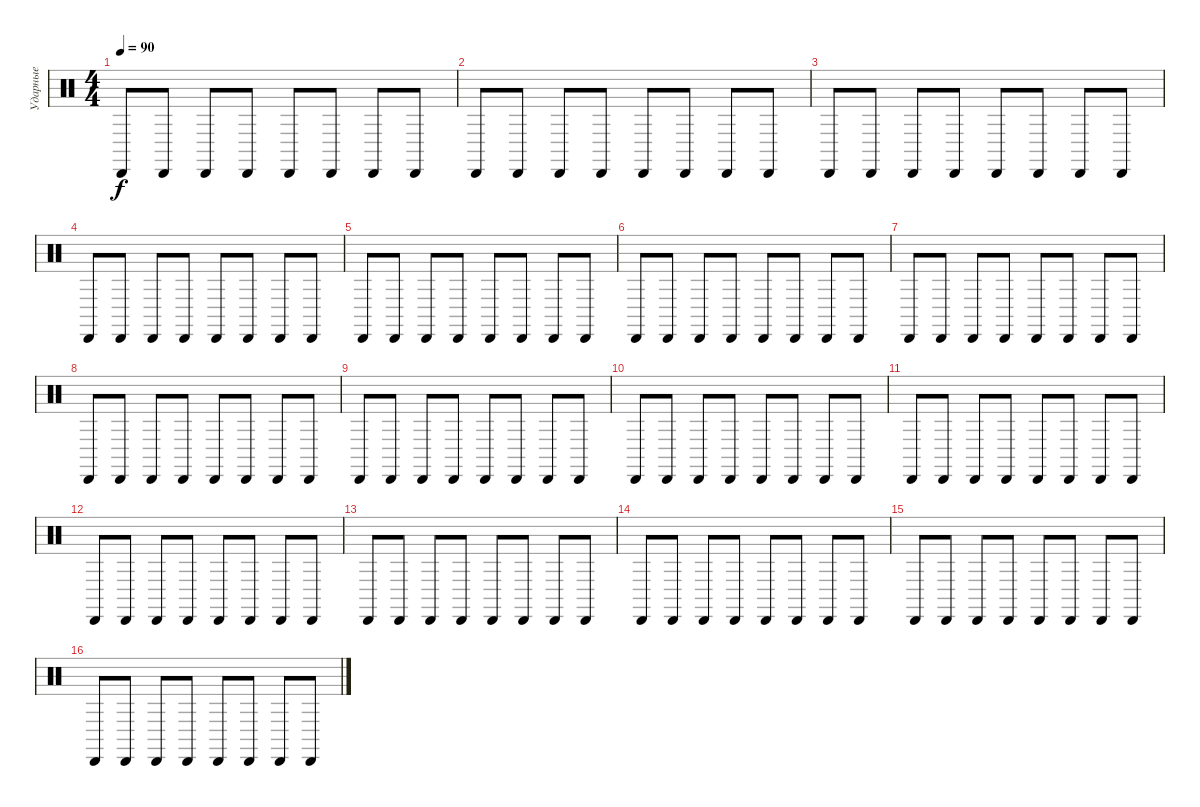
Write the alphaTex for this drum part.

\track ("Ударные" "Ударные") {instrument percussion}
\staff {score}
\articulation defaults
\ts (4 4)
\tempo 90
\clef neutral
\ks c "Cabasa (hit)".8{dy f} "Cabasa (hit)".8 "Cabasa (hit)".8 "Cabasa (hit)".8 "Cabasa (hit)".8 "Cabasa (hit)".8 "Cabasa (hit)".8 "Cabasa (hit)".8
|
"Cabasa (hit)".8 "Cabasa (hit)".8 "Cabasa (hit)".8 "Cabasa (hit)".8 "Cabasa (hit)".8 "Cabasa (hit)".8 "Cabasa (hit)".8 "Cabasa (hit)".8 |
"Cabasa (hit)".8 "Cabasa (hit)".8 "Cabasa (hit)".8 "Cabasa (hit)".8 "Cabasa (hit)".8 "Cabasa (hit)".8 "Cabasa (hit)".8 "Cabasa (hit)".8 |
"Cabasa (hit)".8 "Cabasa (hit)".8 "Cabasa (hit)".8 "Cabasa (hit)".8 "Cabasa (hit)".8 "Cabasa (hit)".8 "Cabasa (hit)".8 "Cabasa (hit)".8 |
"Cabasa (hit)".8 "Cabasa (hit)".8 "Cabasa (hit)".8 "Cabasa (hit)".8 "Cabasa (hit)".8 "Cabasa (hit)".8 "Cabasa (hit)".8 "Cabasa (hit)".8 |
"Cabasa (hit)".8 "Cabasa (hit)".8 "Cabasa (hit)".8 "Cabasa (hit)".8 "Cabasa (hit)".8 "Cabasa (hit)".8 "Cabasa (hit)".8 "Cabasa (hit)".8 |
"Cabasa (hit)".8 "Cabasa (hit)".8 "Cabasa (hit)".8 "Cabasa (hit)".8 "Cabasa (hit)".8 "Cabasa (hit)".8 "Cabasa (hit)".8 "Cabasa (hit)".8 |
"Cabasa (hit)".8 "Cabasa (hit)".8 "Cabasa (hit)".8 "Cabasa (hit)".8 "Cabasa (hit)".8 "Cabasa (hit)".8 "Cabasa (hit)".8 "Cabasa (hit)".8 |
"Cabasa (hit)".8 "Cabasa (hit)".8 "Cabasa (hit)".8 "Cabasa (hit)".8 "Cabasa (hit)".8 "Cabasa (hit)".8 "Cabasa (hit)".8 "Cabasa (hit)".8 |
"Cabasa (hit)".8 "Cabasa (hit)".8 "Cabasa (hit)".8 "Cabasa (hit)".8 "Cabasa (hit)".8 "Cabasa (hit)".8 "Cabasa (hit)".8 "Cabasa (hit)".8 |
"Cabasa (hit)".8 "Cabasa (hit)".8 "Cabasa (hit)".8 "Cabasa (hit)".8 "Cabasa (hit)".8 "Cabasa (hit)".8 "Cabasa (hit)".8 "Cabasa (hit)".8 |
"Cabasa (hit)".8 "Cabasa (hit)".8 "Cabasa (hit)".8 "Cabasa (hit)".8 "Cabasa (hit)".8 "Cabasa (hit)".8 "Cabasa (hit)".8 "Cabasa (hit)".8 |
"Cabasa (hit)".8 "Cabasa (hit)".8 "Cabasa (hit)".8 "Cabasa (hit)".8 "Cabasa (hit)".8 "Cabasa (hit)".8 "Cabasa (hit)".8 "Cabasa (hit)".8 |
"Cabasa (hit)".8 "Cabasa (hit)".8 "Cabasa (hit)".8 "Cabasa (hit)".8 "Cabasa (hit)".8 "Cabasa (hit)".8 "Cabasa (hit)".8 "Cabasa (hit)".8 |
"Cabasa (hit)".8 "Cabasa (hit)".8 "Cabasa (hit)".8 "Cabasa (hit)".8 "Cabasa (hit)".8 "Cabasa (hit)".8 "Cabasa (hit)".8 "Cabasa (hit)".8 |
"Cabasa (hit)".8 "Cabasa (hit)".8 "Cabasa (hit)".8 "Cabasa (hit)".8 "Cabasa (hit)".8 "Cabasa (hit)".8 "Cabasa (hit)".8 "Cabasa (hit)".8
